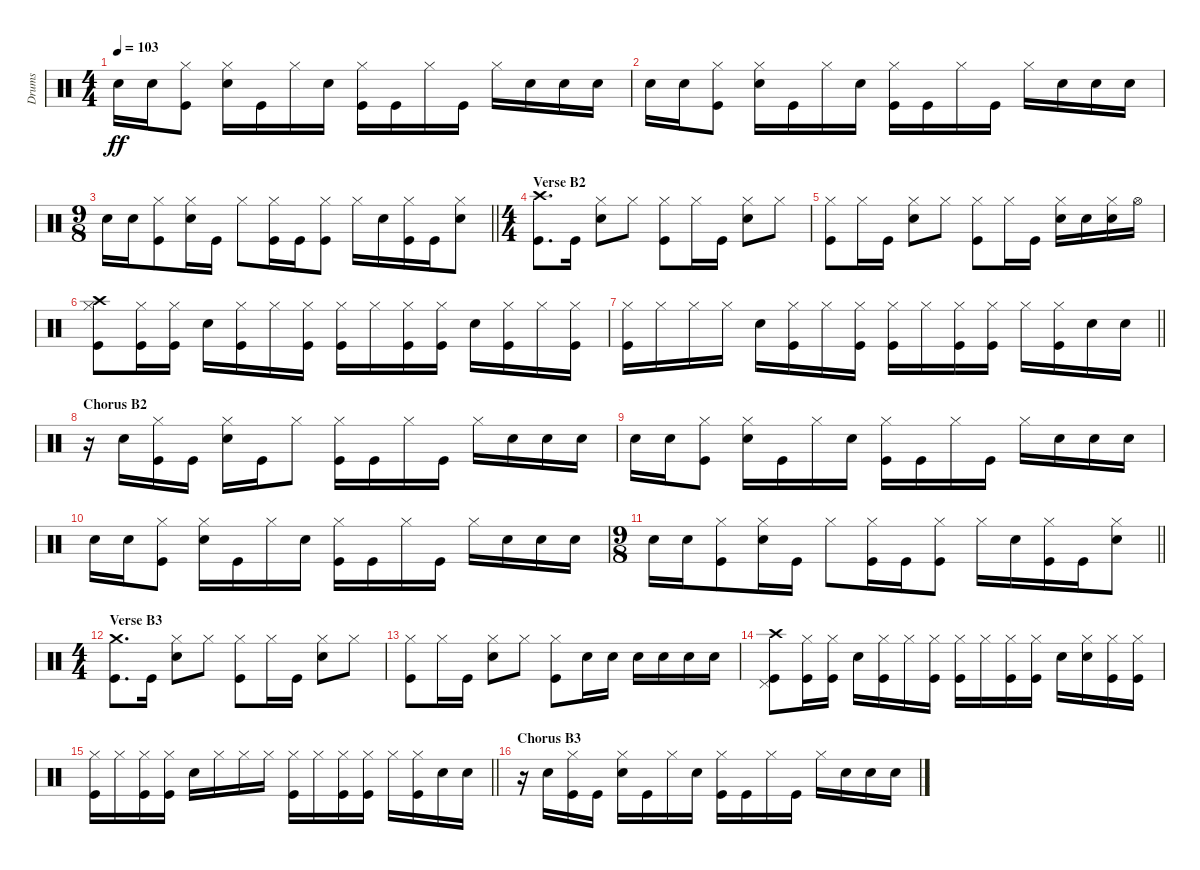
\track ("Drums" "Drums") {instrument percussion}
\staff {score}
\articulation defaults
\ts (4 4)
\tempo 103
\clef neutral
\ks c "Electric Snare (hit)".16{dy ff} "Electric Snare (hit)".16
("Hi-Hat (closed)" "Kick (hit)").8 ("Hi-Hat (closed)" "Electric Snare (hit)").16 "Kick (hit)".16 "Hi-Hat (closed)".16 "Electric Snare (hit)".16 ("Hi-Hat (closed)" "Kick (hit)").16 "Kick (hit)".16 "Hi-Hat (closed)".16 "Kick (hit)".16 "Hi-Hat (closed)".16 "Electric Snare (hit)".16 "Electric Snare (hit)".16 "Electric Snare (hit)".16 |
"Electric Snare (hit)".16 "Electric Snare (hit)".16 ("Hi-Hat (closed)" "Kick (hit)").8 ("Hi-Hat (closed)" "Electric Snare (hit)").16 "Kick (hit)".16 "Hi-Hat (closed)".16 "Electric Snare (hit)".16 ("Hi-Hat (closed)" "Kick (hit)").16 "Kick (hit)".16 "Hi-Hat (closed)".16 "Kick (hit)".16 "Hi-Hat (closed)".16 "Electric Snare (hit)".16 "Electric Snare (hit)".16 "Electric Snare (hit)".16 |
\ts (9 8)
\barLineRight lightlight "Electric Snare (hit)".16 "Electric Snare (hit)".16
("Hi-Hat (closed)" "Kick (hit)").8 ("Hi-Hat (closed)" "Electric Snare (hit)").16 "Kick (hit)".16 "Hi-Hat (closed)".8 ("Hi-Hat (closed)" "Kick (hit)").16 "Kick (hit)".16 ("Hi-Hat (closed)" "Kick (hit)").8 "Hi-Hat (closed)".16 "Electric Snare (hit)".16 ("Hi-Hat (closed)" "Kick (hit)").16 "Kick (hit)".16 ("Hi-Hat (closed)" "Electric Snare (hit)").8 |
\ts (4 4)
\section ("" "Verse B2")
("Crash high (hit)" "Kick (hit)").8{d} "Kick (hit)".16 ("Hi-Hat (closed)" "Electric Snare (hit)").8 "Hi-Hat (closed)".8 ("Hi-Hat (closed)" "Kick (hit)").8 "Hi-Hat (closed)".16 "Kick (hit)".16 ("Hi-Hat (closed)" "Electric Snare (hit)").8 "Hi-Hat (closed)".8 |
("Hi-Hat (closed)" "Kick (hit)").8 "Hi-Hat (closed)".16 "Kick (hit)".16 ("Hi-Hat (closed)" "Electric Snare (hit)").8 "Hi-Hat (closed)".8 ("Hi-Hat (closed)" "Kick (hit)").8 "Hi-Hat (closed)".16 "Kick (hit)".16 ("Hi-Hat (closed)" "Electric Snare (hit)").16 "Electric Snare (hit)".16 ("Hi-Hat (closed)" "Electric Snare (hit)").16 "Hi-Hat (open)".16 |
("Hi-Hat (closed)" "Crash high (hit)" "Kick (hit)").8 ("Hi-Hat (closed)" "Kick (hit)").16 ("Hi-Hat (closed)" "Kick (hit)").16 "Electric Snare (hit)".16 ("Hi-Hat (closed)" "Kick (hit)").16 "Hi-Hat (closed)".16 ("Hi-Hat (closed)" "Kick (hit)").16 ("Hi-Hat (closed)" "Kick (hit)").16 "Hi-Hat (closed)".16 ("Hi-Hat (closed)" "Kick (hit)").16 ("Hi-Hat (closed)" "Kick (hit)").16 "Electric Snare (hit)".16 ("Hi-Hat (closed)" "Kick (hit)").16 "Hi-Hat (closed)".16 ("Hi-Hat (closed)" "Kick (hit)").16 |
\barLineRight lightlight
("Hi-Hat (closed)" "Kick (hit)").16 "Hi-Hat (closed)".16 "Hi-Hat (closed)".16 "Hi-Hat (closed)".16 "Electric Snare (hit)".16 ("Hi-Hat (closed)" "Kick (hit)").16 "Hi-Hat (closed)".16 ("Hi-Hat (closed)" "Kick (hit)").16 ("Hi-Hat (closed)" "Kick (hit)").16 "Hi-Hat (closed)".16 ("Hi-Hat (closed)" "Kick (hit)").16 ("Hi-Hat (closed)" "Kick (hit)").16 "Hi-Hat (closed)".16 ("Hi-Hat (closed)" "Kick (hit)").16 "Electric Snare (hit)".16 "Electric Snare (hit)".16 |
\section ("" "Chorus B2")
r.16 "Electric Snare (hit)".16 ("Hi-Hat (closed)" "Kick (hit)").16 "Kick (hit)".16 ("Hi-Hat (closed)" "Electric Snare (hit)").16 "Kick (hit)".16 "Hi-Hat (closed)".8 ("Hi-Hat (closed)" "Kick (hit)").16 "Kick (hit)".16 "Hi-Hat (closed)".16 "Kick (hit)".16 "Hi-Hat (closed)".16 "Electric Snare (hit)".16 "Electric Snare (hit)".16 "Electric Snare (hit)".16 |
"Electric Snare (hit)".16 "Electric Snare (hit)".16 ("Hi-Hat (closed)" "Kick (hit)").8 ("Hi-Hat (closed)" "Electric Snare (hit)").16 "Kick (hit)".16 "Hi-Hat (closed)".16 "Electric Snare (hit)".16 ("Hi-Hat (closed)" "Kick (hit)").16 "Kick (hit)".16 "Hi-Hat (closed)".16 "Kick (hit)".16 "Hi-Hat (closed)".16 "Electric Snare (hit)".16 "Electric Snare (hit)".16 "Electric Snare (hit)".16 |
"Electric Snare (hit)".16 "Electric Snare (hit)".16 ("Hi-Hat (closed)" "Kick (hit)").8 ("Hi-Hat (closed)" "Electric Snare (hit)").16 "Kick (hit)".16 "Hi-Hat (closed)".16 "Electric Snare (hit)".16 ("Hi-Hat (closed)" "Kick (hit)").16 "Kick (hit)".16 "Hi-Hat (closed)".16 "Kick (hit)".16 "Hi-Hat (closed)".16 "Electric Snare (hit)".16 "Electric Snare (hit)".16 "Electric Snare (hit)".16 |
\ts (9 8)
\barLineRight lightlight "Electric Snare (hit)".16 "Electric Snare (hit)".16
("Hi-Hat (closed)" "Kick (hit)").8 ("Hi-Hat (closed)" "Electric Snare (hit)").16 "Kick (hit)".16 "Hi-Hat (closed)".8 ("Hi-Hat (closed)" "Kick (hit)").16 "Kick (hit)".16 ("Hi-Hat (closed)" "Kick (hit)").8 "Hi-Hat (closed)".16 "Electric Snare (hit)".16 ("Hi-Hat (closed)" "Kick (hit)").16 "Kick (hit)".16 ("Hi-Hat (closed)" "Electric Snare (hit)").8 |
\ts (4 4)
\section ("" "Verse B3")
("Crash medium (hit)" "Kick (hit)").8{d} "Kick (hit)".16 ("Hi-Hat (closed)" "Electric Snare (hit)").8 "Hi-Hat (closed)".8 ("Hi-Hat (closed)" "Kick (hit)").8 "Hi-Hat (closed)".16 "Kick (hit)".16 ("Hi-Hat (closed)" "Electric Snare (hit)").8 "Hi-Hat (closed)".8 |
("Hi-Hat (closed)" "Kick (hit)").8 "Hi-Hat (closed)".16 "Kick (hit)".16 ("Hi-Hat (closed)" "Electric Snare (hit)").8 "Hi-Hat (closed)".8 ("Hi-Hat (closed)" "Kick (hit)").8 "Electric Snare (hit)".16 "Electric Snare (hit)".16 "Electric Snare (hit)".16 "Electric Snare (hit)".16 "Electric Snare (hit)".16 "Electric Snare (hit)".16 |
("Pedal Hi-Hat (hit)" "Crash high (hit)" "Kick (hit)").8 ("Hi-Hat (closed)" "Kick (hit)").16 ("Hi-Hat (closed)" "Kick (hit)").16 "Electric Snare (hit)".16 ("Hi-Hat (closed)" "Kick (hit)").16 "Hi-Hat (closed)".16 ("Hi-Hat (closed)" "Kick (hit)").16 ("Hi-Hat (closed)" "Kick (hit)").16 "Hi-Hat (closed)".16 ("Hi-Hat (closed)" "Kick (hit)").16 ("Hi-Hat (closed)" "Kick (hit)").16 "Electric Snare (hit)".16 ("Hi-Hat (closed)" "Electric Snare (hit)").16 ("Hi-Hat (closed)" "Kick (hit)").16 ("Hi-Hat (closed)" "Kick (hit)").16 |
\barLineRight lightlight
("Hi-Hat (closed)" "Kick (hit)").16 "Hi-Hat (closed)".16 ("Hi-Hat (closed)" "Kick (hit)").16 ("Hi-Hat (closed)" "Kick (hit)").16 "Electric Snare (hit)".16 "Hi-Hat (closed)".16 "Hi-Hat (closed)".16 "Hi-Hat (closed)".16 ("Hi-Hat (closed)" "Kick (hit)").16 "Hi-Hat (closed)".16 ("Hi-Hat (closed)" "Kick (hit)").16 ("Hi-Hat (closed)" "Kick (hit)").16 "Hi-Hat (closed)".16 ("Hi-Hat (closed)" "Kick (hit)").16 "Electric Snare (hit)".16 "Electric Snare (hit)".16 |
\section ("" "Chorus B3")
r.16 "Electric Snare (hit)".16 ("Hi-Hat (closed)" "Kick (hit)").16 "Kick (hit)".16 ("Hi-Hat (closed)" "Electric Snare (hit)").16 "Kick (hit)".16 "Hi-Hat (closed)".16 "Electric Snare (hit)".16 ("Hi-Hat (closed)" "Kick (hit)").16 "Kick (hit)".16 "Hi-Hat (closed)".16 "Kick (hit)".16 "Hi-Hat (closed)".16 "Electric Snare (hit)".16 "Electric Snare (hit)".16 "Electric Snare (hit)".16
